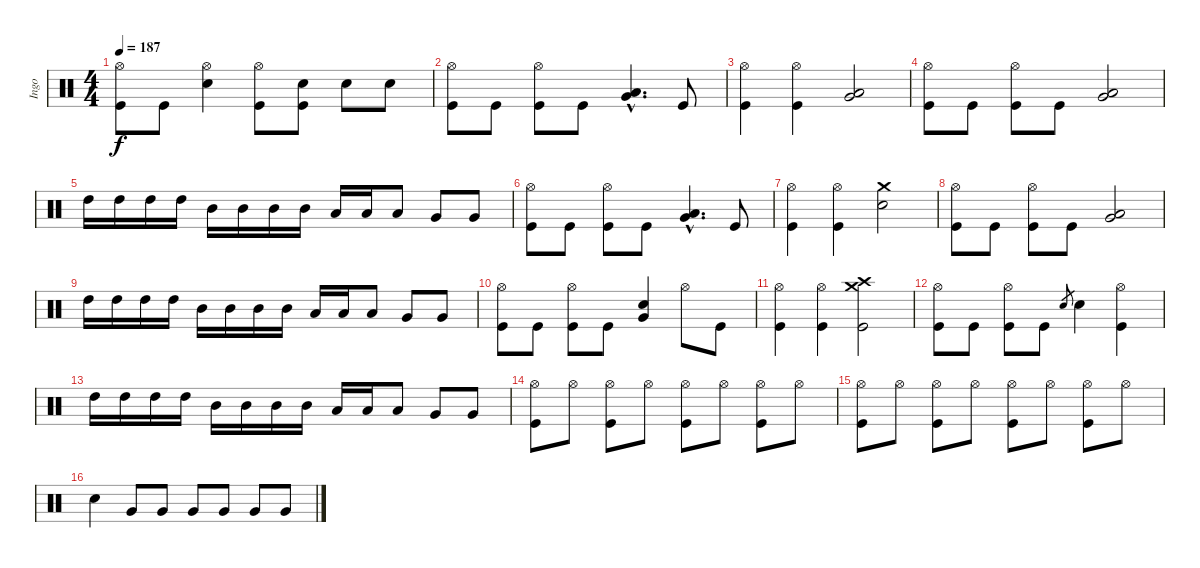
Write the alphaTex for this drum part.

\track ("Ingo" "Ingo") {instrument percussion}
\staff {score}
\articulation defaults
\ts (4 4)
\tempo 187
\clef neutral
\ks c
("Hi-Hat (open)" "Kick (hit)").8{dy f} "Kick (hit)".8 ("Hi-Hat (open)" "Snare (hit) 2").4 ("Hi-Hat (open)" "Kick (hit)").8 ("Snare (hit) 2" "Kick (hit)").8 "Snare (hit) 2".8 "Snare (hit) 2".8 |
("Hi-Hat (open)" "Kick (hit)").8 "Kick (hit)".8 ("Hi-Hat (open)" "Kick (hit)").8 "Kick (hit)".8 ("Very Low Tom (hit)"{hac} "Low Floor Tom (hit)"{hac}).4{d} "Kick (hit)".8 |
("Hi-Hat (open)" "Kick (hit)").4 ("Hi-Hat (open)" "Kick (hit)").4 ("Very Low Tom (hit)" "Low Floor Tom (hit)").2 |
("Hi-Hat (open)" "Kick (hit)").8 "Kick (hit)".8 ("Hi-Hat (open)" "Kick (hit)").8 "Kick (hit)".8 ("Very Low Tom (hit)" "Low Floor Tom (hit)").2 |
"High Tom (hit)".16 "High Tom (hit)".16 "High Tom (hit)".16 "High Tom (hit)".16 "Mid Tom (hit)".16 "Mid Tom (hit)".16 "Mid Tom (hit)".16 "Mid Tom (hit)".16 "Low Tom (hit)".16 "Low Tom (hit)".16 "Low Tom (hit)".8 "Very Low Tom (hit)".8 "Very Low Tom (hit)".8 |
("Hi-Hat (open)" "Kick (hit)").8 "Kick (hit)".8 ("Hi-Hat (open)" "Kick (hit)").8 "Kick (hit)".8 ("Very Low Tom (hit)"{hac} "Low Floor Tom (hit)"{hac}).4{d} "Kick (hit)".8 |
("Hi-Hat (open)" "Kick (hit)").4 ("Hi-Hat (open)" "Kick (hit)").4 ("Crash medium (hit)" "Snare (hit) 2").2 |
("Hi-Hat (open)" "Kick (hit)").8 "Kick (hit)".8 ("Hi-Hat (open)" "Kick (hit)").8 "Kick (hit)".8 ("Very Low Tom (hit)" "Low Floor Tom (hit)").2 |
"High Tom (hit)".16 "High Tom (hit)".16 "High Tom (hit)".16 "High Tom (hit)".16 "Mid Tom (hit)".16 "Mid Tom (hit)".16 "Mid Tom (hit)".16 "Mid Tom (hit)".16 "Low Tom (hit)".16 "Low Tom (hit)".16 "Low Tom (hit)".8 "Very Low Tom (hit)".8 "Very Low Tom (hit)".8 |
("Hi-Hat (open)" "Kick (hit)").8 "Kick (hit)".8 ("Hi-Hat (open)" "Kick (hit)").8 "Kick (hit)".8 ("Snare (hit) 2" "Very Low Tom (hit)").4 "Hi-Hat (open)".8 "Kick (hit)".8 |
("Hi-Hat (open)" "Kick (hit)").4 ("Hi-Hat (open)" "Kick (hit)").4 ("Crash high (hit)" "Crash medium (hit)" "Kick (hit)").2 |
("Hi-Hat (open)" "Kick (hit)").8 "Kick (hit)".8 ("Hi-Hat (open)" "Kick (hit)").8 "Kick (hit)".8 "Snare (hit) 2".8{gr} "Snare (hit) 2".4 ("Hi-Hat (open)" "Kick (hit)").4 |
"High Tom (hit)".16 "High Tom (hit)".16 "High Tom (hit)".16 "High Tom (hit)".16 "Mid Tom (hit)".16 "Mid Tom (hit)".16 "Mid Tom (hit)".16 "Mid Tom (hit)".16 "Low Tom (hit)".16 "Low Tom (hit)".16 "Low Tom (hit)".8 "Very Low Tom (hit)".8 "Very Low Tom (hit)".8 |
("Hi-Hat (open)" "Kick (hit)").8 "Hi-Hat (open)".8 ("Hi-Hat (open)" "Kick (hit)").8 "Hi-Hat (open)".8 ("Hi-Hat (open)" "Kick (hit)").8 "Hi-Hat (open)".8 ("Hi-Hat (open)" "Kick (hit)").8 "Hi-Hat (open)".8 |
("Hi-Hat (open)" "Kick (hit)").8 "Hi-Hat (open)".8 ("Hi-Hat (open)" "Kick (hit)").8 "Hi-Hat (open)".8 ("Hi-Hat (open)" "Kick (hit)").8 "Hi-Hat (open)".8 ("Hi-Hat (open)" "Kick (hit)").8 "Hi-Hat (open)".8 |
"Snare (hit) 2".4{volume 8} "Very Low Tom (hit)".8{volume 11} "Very Low Tom (hit)".8 "Very Low Tom (hit)".8 "Very Low Tom (hit)".8 "Very Low Tom (hit)".8 "Very Low Tom (hit)".8
